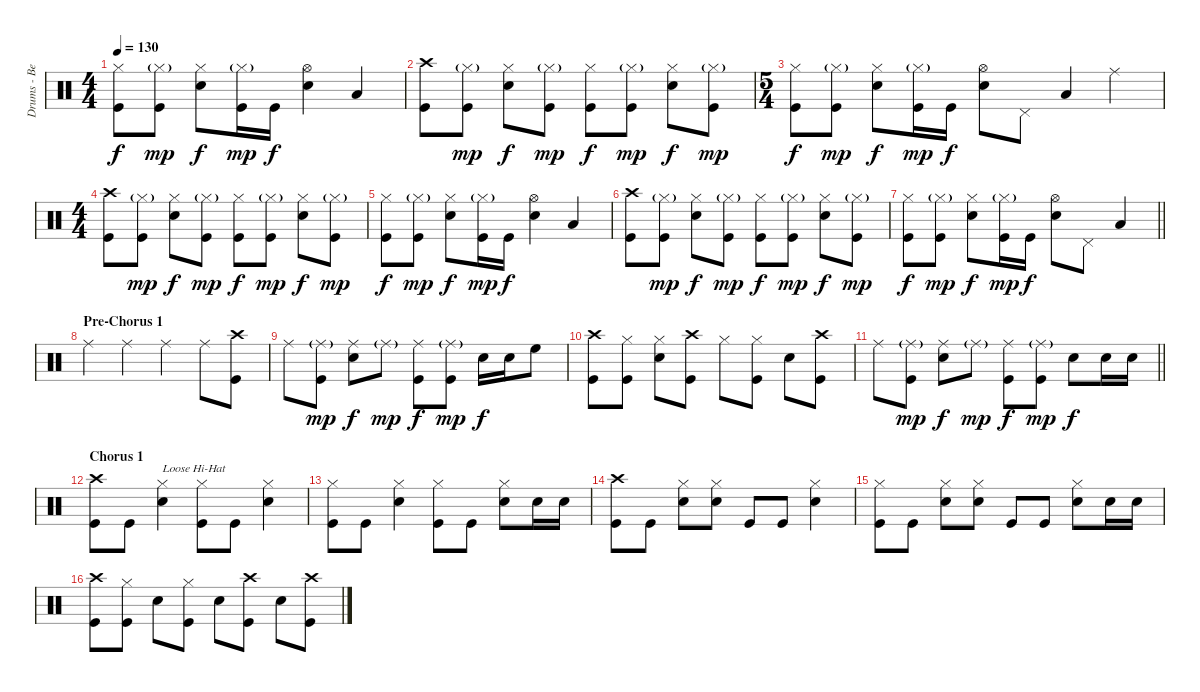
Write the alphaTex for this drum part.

\track ("Drums - Ben Johnston" "Drums - Be") {instrument percussion}
\staff {score}
\articulation defaults
\ts (4 4)
\tempo 130
\clef neutral
\ks c
("Hi-Hat (closed)" "Kick (hit)").8{dy f} ("Hi-Hat (closed)"{g} "Kick (hit)").8{dy mp} ("Hi-Hat (closed)" "Snare (hit) 2").8{dy f} ("Hi-Hat (closed)"{g} "Kick (hit)").16{dy mp} "Kick (hit)".16{dy f} ("Hi-Hat (open)" "Snare (hit) 2").4 "Low Tom (hit)".4 |
("Crash high (hit)" "Kick (hit)").8 ("Hi-Hat (closed)"{g} "Kick (hit)").8{dy mp} ("Hi-Hat (closed)" "Snare (hit) 2").8{dy f} ("Hi-Hat (closed)"{g} "Kick (hit)").8{dy mp} ("Hi-Hat (closed)" "Kick (hit)").8{dy f} ("Hi-Hat (closed)"{g} "Kick (hit)").8{dy mp} ("Hi-Hat (closed)" "Snare (hit) 2").8{dy f} ("Hi-Hat (closed)"{g} "Kick (hit)").8{dy mp} |
\ts (5 4)
("Hi-Hat (closed)" "Kick (hit)").8{dy f} ("Hi-Hat (closed)"{g} "Kick (hit)").8{dy mp} ("Hi-Hat (closed)" "Snare (hit) 2").8{dy f} ("Hi-Hat (closed)"{g} "Kick (hit)").16{dy mp} "Kick (hit)".16{dy f} ("Hi-Hat (open)" "Snare (hit) 2").8 "Pedal Hi-Hat (hit)".8 "Low Tom (hit)".4 "Ride (middle)".4 |
\ts (4 4)
("Crash high (hit)" "Kick (hit)").8 ("Hi-Hat (closed)"{g} "Kick (hit)").8{dy mp} ("Hi-Hat (closed)" "Snare (hit) 2").8{dy f} ("Hi-Hat (closed)"{g} "Kick (hit)").8{dy mp} ("Hi-Hat (closed)" "Kick (hit)").8{dy f} ("Hi-Hat (closed)"{g} "Kick (hit)").8{dy mp} ("Hi-Hat (closed)" "Snare (hit) 2").8{dy f} ("Hi-Hat (closed)"{g} "Kick (hit)").8{dy mp} |
("Hi-Hat (closed)" "Kick (hit)").8{dy f} ("Hi-Hat (closed)"{g} "Kick (hit)").8{dy mp} ("Hi-Hat (closed)" "Snare (hit) 2").8{dy f} ("Hi-Hat (closed)"{g} "Kick (hit)").16{dy mp} "Kick (hit)".16{dy f} ("Hi-Hat (open)" "Snare (hit) 2").4 "Low Tom (hit)".4 |
("Crash high (hit)" "Kick (hit)").8 ("Hi-Hat (closed)"{g} "Kick (hit)").8{dy mp} ("Hi-Hat (closed)" "Snare (hit) 2").8{dy f} ("Hi-Hat (closed)"{g} "Kick (hit)").8{dy mp} ("Hi-Hat (closed)" "Kick (hit)").8{dy f} ("Hi-Hat (closed)"{g} "Kick (hit)").8{dy mp} ("Hi-Hat (closed)" "Snare (hit) 2").8{dy f} ("Hi-Hat (closed)"{g} "Kick (hit)").8{dy mp} |
\barLineRight lightlight
("Hi-Hat (closed)" "Kick (hit)").8{dy f} ("Hi-Hat (closed)"{g} "Kick (hit)").8{dy mp} ("Hi-Hat (closed)" "Snare (hit) 2").8{dy f} ("Hi-Hat (closed)"{g} "Kick (hit)").16{dy mp} "Kick (hit)".16{dy f} ("Hi-Hat (open)" "Snare (hit) 2").8 "Pedal Hi-Hat (hit)".8 "Low Tom (hit)".4 |
\section ("" "Pre-Chorus 1")
"Ride (middle)".4 "Ride (middle)".4 "Ride (middle)".4 "Ride (middle)".8 ("Crash high (hit)" "Kick (hit)").8 |
"Ride (middle)".8 ("Ride (middle)"{g} "Kick (hit)").8{dy mp} ("Ride (middle)" "Snare (hit) 2").8{dy f} "Ride (middle)"{g}.8{dy mp} ("Ride (middle)" "Kick (hit)").8{dy f} ("Ride (middle)"{g} "Kick (hit)").8{dy mp} "Snare (hit) 2".16{dy f} "Snare (hit) 2".16 "High Floor Tom (hit)".8 |
("Crash high (hit)" "Kick (hit)").8 ("Hi-Hat (closed)" "Kick (hit)").8 ("Hi-Hat (closed)" "Snare (hit) 2").8 ("Crash high (hit)" "Kick (hit)").8 "Hi-Hat (closed)".8 ("Hi-Hat (closed)" "Kick (hit)").8 "Snare (hit) 2".8 ("Crash high (hit)" "Kick (hit)").8 |
\barLineRight lightlight "Ride (middle)".8
("Ride (middle)"{g} "Kick (hit)").8{dy mp} ("Ride (middle)" "Snare (hit) 2").8{dy f} "Ride (middle)"{g}.8{dy mp} ("Ride (middle)" "Kick (hit)").8{dy f} ("Ride (middle)"{g} "Kick (hit)").8{dy mp} "Snare (hit) 2".8{dy f} "Snare (hit) 2".16 "Snare (hit) 2".16 |
\section ("" "Chorus 1")
("Crash high (hit)" "Kick (hit)").8 "Kick (hit)".8 ("Hi-Hat (closed)" "Snare (hit) 2").4{txt "Loose Hi-Hat"} ("Hi-Hat (closed)" "Kick (hit)").8 "Kick (hit)".8 ("Hi-Hat (closed)" "Snare (hit) 2").4 |
("Hi-Hat (closed)" "Kick (hit)").8 "Kick (hit)".8 ("Hi-Hat (closed)" "Snare (hit) 2").4 ("Hi-Hat (closed)" "Kick (hit)").8 "Kick (hit)".8 ("Hi-Hat (closed)" "Snare (hit) 2").8 "Snare (hit) 2".16 "Snare (hit) 2".16 |
("Crash high (hit)" "Kick (hit)").8 "Kick (hit)".8 ("Hi-Hat (closed)" "Snare (hit) 2").8 ("Hi-Hat (closed)" "Snare (hit) 2").8 "Kick (hit)".8 "Kick (hit)".8 ("Hi-Hat (closed)" "Snare (hit) 2").4 |
("Hi-Hat (closed)" "Kick (hit)").8 "Kick (hit)".8 ("Hi-Hat (closed)" "Snare (hit) 2").8 ("Hi-Hat (closed)" "Snare (hit) 2").8 "Kick (hit)".8 "Kick (hit)".8 ("Hi-Hat (closed)" "Snare (hit) 2").8 "Snare (hit) 2".16 "Snare (hit) 2".16 |
("Crash high (hit)" "Kick (hit)").8 ("Hi-Hat (closed)" "Kick (hit)").8 "Snare (hit) 2".8 ("Hi-Hat (closed)" "Kick (hit)").8 "Snare (hit) 2".8 ("Crash high (hit)" "Kick (hit)").8 "Snare (hit) 2".8 ("Crash high (hit)" "Kick (hit)").8
